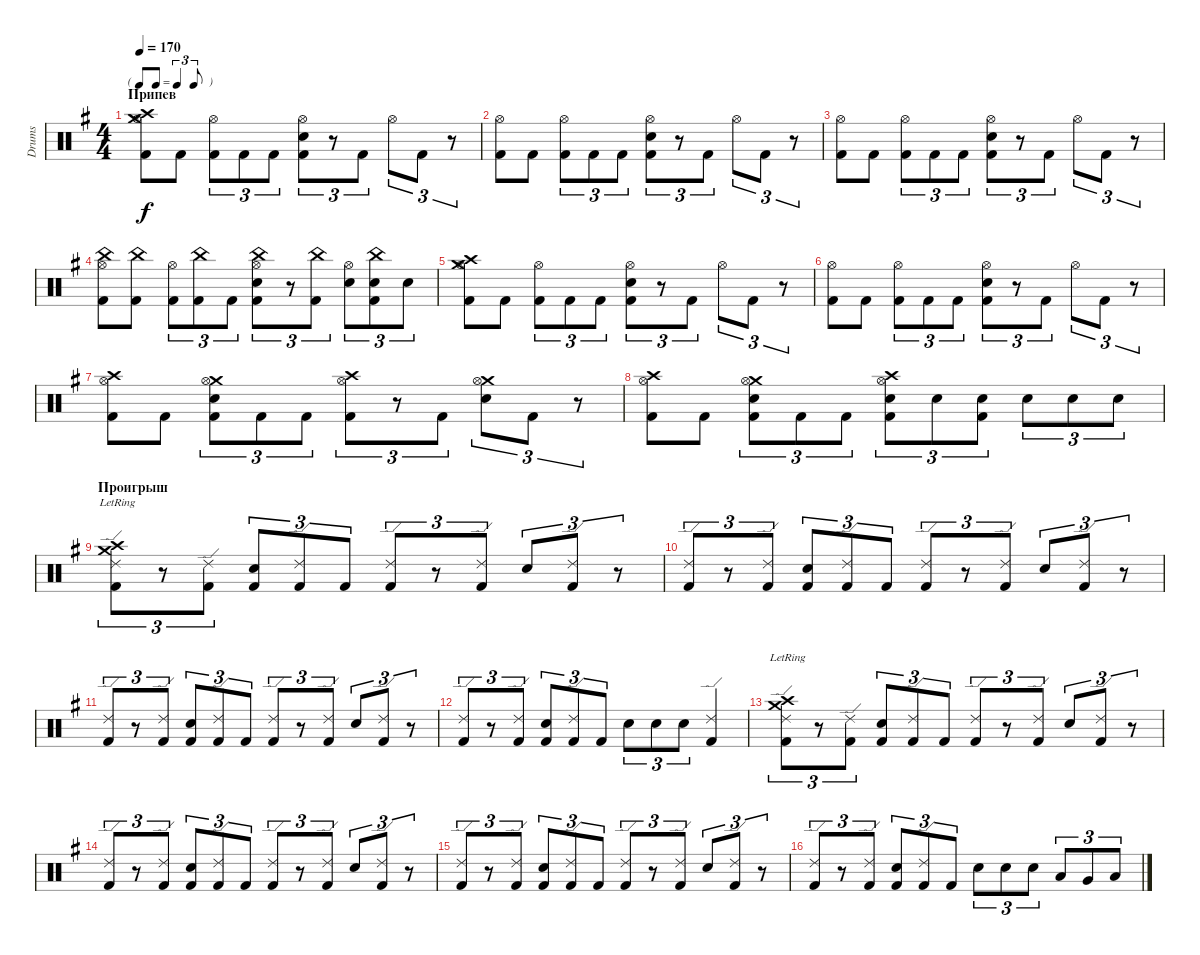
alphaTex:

\track ("Drums" "Drums") {instrument percussion}
\staff {score}
\articulation defaults
\ts (4 4)
\tf triplet8th
\section ("" "Припев")
\tempo 170
\clef neutral
\ks eminor
("Crash high (hit)" "Crash medium (hit)" "Hi-Hat (open)" "Kick (hit) 2").8{dy f} "Kick (hit) 2".8 ("Hi-Hat (open)" "Kick (hit) 2").8{tu (3 2)} "Kick (hit) 2".8{tu (3 2)} "Kick (hit) 2".8{tu (3 2)} ("Electric Snare (hit)" "Hi-Hat (open)" "Kick (hit) 2").8{tu (3 2)} r.8{tu (3 2)} "Kick (hit) 2".8{tu (3 2)} "Hi-Hat (open)".8{tu (3 2)} "Kick (hit) 2".8{tu (3 2)} r.8{tu (3 2)} |
("Hi-Hat (open)" "Kick (hit) 2").8 "Kick (hit) 2".8 ("Hi-Hat (open)" "Kick (hit) 2").8{tu (3 2)} "Kick (hit) 2".8{tu (3 2)} "Kick (hit) 2".8{tu (3 2)} ("Electric Snare (hit)" "Hi-Hat (open)" "Kick (hit) 2").8{tu (3 2)} r.8{tu (3 2)} "Kick (hit) 2".8{tu (3 2)} "Hi-Hat (open)".8{tu (3 2)} "Kick (hit) 2".8{tu (3 2)} r.8{tu (3 2)} |
("Hi-Hat (open)" "Kick (hit) 2").8 "Kick (hit) 2".8 ("Hi-Hat (open)" "Kick (hit) 2").8{tu (3 2)} "Kick (hit) 2".8{tu (3 2)} "Kick (hit) 2".8{tu (3 2)} ("Electric Snare (hit)" "Hi-Hat (open)" "Kick (hit) 2").8{tu (3 2)} r.8{tu (3 2)} "Kick (hit) 2".8{tu (3 2)} "Hi-Hat (open)".8{tu (3 2)} "Kick (hit) 2".8{tu (3 2)} r.8{tu (3 2)} |
("China (hit)" "Hi-Hat (open)" "Kick (hit) 2").8 ("China (hit)" "Kick (hit) 2").8 ("Hi-Hat (open)" "Kick (hit) 2").8{tu (3 2)} ("China (hit)" "Kick (hit) 2").8{tu (3 2)} "Kick (hit) 2".8{tu (3 2)} ("China (hit)" "Electric Snare (hit)" "Hi-Hat (open)" "Kick (hit) 2").8{tu (3 2)} r.8{tu (3 2)} ("China (hit)" "Kick (hit) 2").8{tu (3 2)} ("Electric Snare (hit)" "Hi-Hat (open)").8{tu (3 2)} ("China (hit)" "Electric Snare (hit)" "Kick (hit) 2").8{tu (3 2)} "Electric Snare (hit)".8{tu (3 2)} |
("Crash high (hit)" "Crash medium (hit)" "Hi-Hat (open)" "Kick (hit) 2").8 "Kick (hit) 2".8 ("Hi-Hat (open)" "Kick (hit) 2").8{tu (3 2)} "Kick (hit) 2".8{tu (3 2)} "Kick (hit) 2".8{tu (3 2)} ("Electric Snare (hit)" "Hi-Hat (open)" "Kick (hit) 2").8{tu (3 2)} r.8{tu (3 2)} "Kick (hit) 2".8{tu (3 2)} "Hi-Hat (open)".8{tu (3 2)} "Kick (hit) 2".8{tu (3 2)} r.8{tu (3 2)} |
("Hi-Hat (open)" "Kick (hit) 2").8 "Kick (hit) 2".8 ("Hi-Hat (open)" "Kick (hit) 2").8{tu (3 2)} "Kick (hit) 2".8{tu (3 2)} "Kick (hit) 2".8{tu (3 2)} ("Electric Snare (hit)" "Hi-Hat (open)" "Kick (hit) 2").8{tu (3 2)} r.8{tu (3 2)} "Kick (hit) 2".8{tu (3 2)} "Hi-Hat (open)".8{tu (3 2)} "Kick (hit) 2".8{tu (3 2)} r.8{tu (3 2)} |
("Crash high (hit)" "Hi-Hat (open)" "Kick (hit) 2").8 "Kick (hit) 2".8 ("Crash medium (hit)" "Electric Snare (hit)" "Hi-Hat (open)" "Kick (hit) 2").8{tu (3 2)} "Kick (hit) 2".8{tu (3 2)} "Kick (hit) 2".8{tu (3 2)} ("Crash high (hit)" "Hi-Hat (open)" "Kick (hit) 2").8{tu (3 2)} r.8{tu (3 2)} "Kick (hit) 2".8{tu (3 2)} ("Crash medium (hit)" "Electric Snare (hit)" "Hi-Hat (open)").8{tu (3 2)} "Kick (hit) 2".8{tu (3 2)} r.8{tu (3 2)} |
("Crash high (hit)" "Hi-Hat (open)" "Kick (hit) 2").8 "Kick (hit) 2".8 ("Crash medium (hit)" "Electric Snare (hit)" "Hi-Hat (open)" "Kick (hit) 2").8{tu (3 2)} "Kick (hit) 2".8{tu (3 2)} "Kick (hit) 2".8{tu (3 2)} ("Crash high (hit)" "Electric Snare (hit)" "Hi-Hat (open)" "Kick (hit) 2").8{tu (3 2)} "Electric Snare (hit)".8{tu (3 2)} ("Electric Snare (hit)" "Kick (hit) 2").8{tu (3 2)} "Electric Snare (hit)".8{tu (3 2)} "Electric Snare (hit)".8{tu (3 2)} "Electric Snare (hit)".8{tu (3 2)} |
\section ("" "Проигрыш")
("Crash high (hit)"{lr} "Crash medium (hit)"{lr} "Ride (edge) 2" "Kick (hit) 2").8{tu (3 2)} r.8{tu (3 2)} ("Ride (edge) 2" "Kick (hit) 2").8{tu (3 2)} ("Electric Snare (hit)" "Kick (hit) 2").8{tu (3 2)} ("Ride (edge) 2" "Kick (hit) 2").8{tu (3 2)} "Kick (hit) 2".8{tu (3 2)} ("Ride (edge) 2" "Kick (hit) 2").8{tu (3 2)} r.8{tu (3 2)} ("Ride (edge) 2" "Kick (hit) 2").8{tu (3 2)} "Electric Snare (hit)".8{tu (3 2)} ("Ride (edge) 2" "Kick (hit) 2").8{tu (3 2)} r.8{tu (3 2)} |
("Ride (edge) 2" "Kick (hit) 2").8{tu (3 2)} r.8{tu (3 2)} ("Ride (edge) 2" "Kick (hit) 2").8{tu (3 2)} ("Electric Snare (hit)" "Kick (hit) 2").8{tu (3 2)} ("Ride (edge) 2" "Kick (hit) 2").8{tu (3 2)} "Kick (hit) 2".8{tu (3 2)} ("Ride (edge) 2" "Kick (hit) 2").8{tu (3 2)} r.8{tu (3 2)} ("Ride (edge) 2" "Kick (hit) 2").8{tu (3 2)} "Electric Snare (hit)".8{tu (3 2)} ("Ride (edge) 2" "Kick (hit) 2").8{tu (3 2)} r.8{tu (3 2)} |
("Ride (edge) 2" "Kick (hit) 2").8{tu (3 2)} r.8{tu (3 2)} ("Ride (edge) 2" "Kick (hit) 2").8{tu (3 2)} ("Electric Snare (hit)" "Kick (hit) 2").8{tu (3 2)} ("Ride (edge) 2" "Kick (hit) 2").8{tu (3 2)} "Kick (hit) 2".8{tu (3 2)} ("Ride (edge) 2" "Kick (hit) 2").8{tu (3 2)} r.8{tu (3 2)} ("Ride (edge) 2" "Kick (hit) 2").8{tu (3 2)} "Electric Snare (hit)".8{tu (3 2)} ("Ride (edge) 2" "Kick (hit) 2").8{tu (3 2)} r.8{tu (3 2)} |
("Ride (edge) 2" "Kick (hit) 2").8{tu (3 2)} r.8{tu (3 2)} ("Ride (edge) 2" "Kick (hit) 2").8{tu (3 2)} ("Electric Snare (hit)" "Kick (hit) 2").8{tu (3 2)} ("Ride (edge) 2" "Kick (hit) 2").8{tu (3 2)} "Kick (hit) 2".8{tu (3 2)} "Electric Snare (hit)".8{tu (3 2)} "Electric Snare (hit)".8{tu (3 2)} "Electric Snare (hit)".8{tu (3 2)} ("Ride (edge) 2" "Kick (hit) 2").4 |
("Crash high (hit)"{lr} "Crash medium (hit)"{lr} "Ride (edge) 2" "Kick (hit) 2").8{tu (3 2)} r.8{tu (3 2)} ("Ride (edge) 2" "Kick (hit) 2").8{tu (3 2)} ("Electric Snare (hit)" "Kick (hit) 2").8{tu (3 2)} ("Ride (edge) 2" "Kick (hit) 2").8{tu (3 2)} "Kick (hit) 2".8{tu (3 2)} ("Ride (edge) 2" "Kick (hit) 2").8{tu (3 2)} r.8{tu (3 2)} ("Ride (edge) 2" "Kick (hit) 2").8{tu (3 2)} "Electric Snare (hit)".8{tu (3 2)} ("Ride (edge) 2" "Kick (hit) 2").8{tu (3 2)} r.8{tu (3 2)} |
("Ride (edge) 2" "Kick (hit) 2").8{tu (3 2)} r.8{tu (3 2)} ("Ride (edge) 2" "Kick (hit) 2").8{tu (3 2)} ("Electric Snare (hit)" "Kick (hit) 2").8{tu (3 2)} ("Ride (edge) 2" "Kick (hit) 2").8{tu (3 2)} "Kick (hit) 2".8{tu (3 2)} ("Ride (edge) 2" "Kick (hit) 2").8{tu (3 2)} r.8{tu (3 2)} ("Ride (edge) 2" "Kick (hit) 2").8{tu (3 2)} "Electric Snare (hit)".8{tu (3 2)} ("Ride (edge) 2" "Kick (hit) 2").8{tu (3 2)} r.8{tu (3 2)} |
("Ride (edge) 2" "Kick (hit) 2").8{tu (3 2)} r.8{tu (3 2)} ("Ride (edge) 2" "Kick (hit) 2").8{tu (3 2)} ("Electric Snare (hit)" "Kick (hit) 2").8{tu (3 2)} ("Ride (edge) 2" "Kick (hit) 2").8{tu (3 2)} "Kick (hit) 2".8{tu (3 2)} ("Ride (edge) 2" "Kick (hit) 2").8{tu (3 2)} r.8{tu (3 2)} ("Ride (edge) 2" "Kick (hit) 2").8{tu (3 2)} "Electric Snare (hit)".8{tu (3 2)} ("Ride (edge) 2" "Kick (hit) 2").8{tu (3 2)} r.8{tu (3 2)} |
("Ride (edge) 2" "Kick (hit) 2").8{tu (3 2)} r.8{tu (3 2)} ("Ride (edge) 2" "Kick (hit) 2").8{tu (3 2)} ("Electric Snare (hit)" "Kick (hit) 2").8{tu (3 2)} ("Ride (edge) 2" "Kick (hit) 2").8{tu (3 2)} "Kick (hit) 2".8{tu (3 2)} "Electric Snare (hit)".8{tu (3 2)} "Electric Snare (hit)".8{tu (3 2)} "Electric Snare (hit)".8{tu (3 2)} "Low Tom (hit)".8{tu (3 2)} "Very Low Tom (hit)".8{tu (3 2)} "Low Floor Tom (hit)".8{tu (3 2)}
